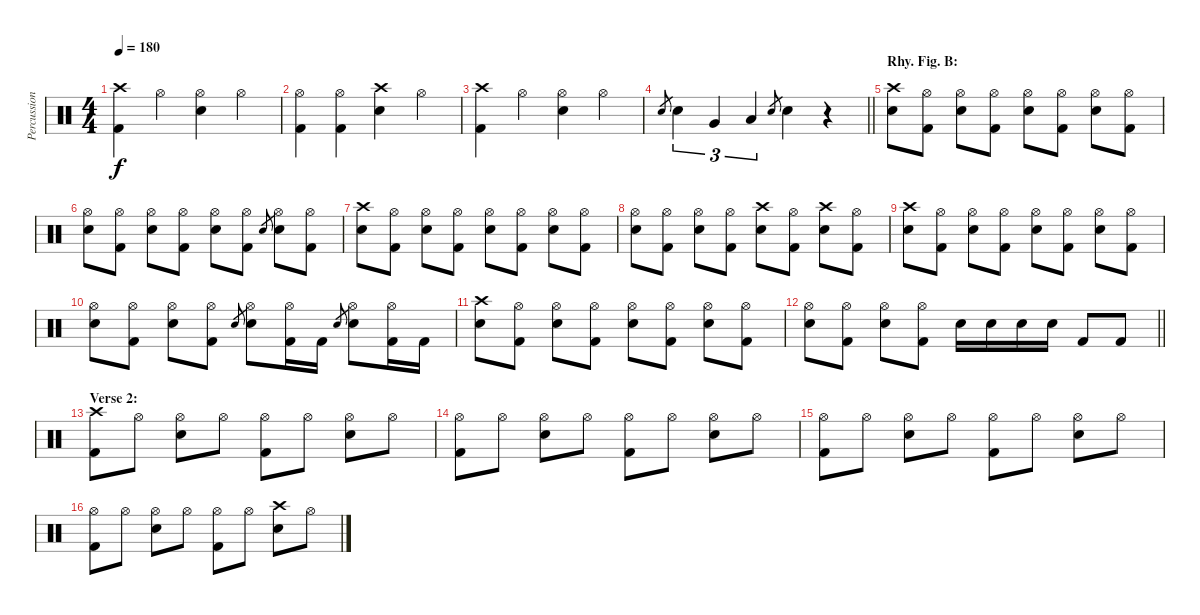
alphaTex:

\track ("Percussion" "Percussion") {instrument percussion}
\staff {score}
\articulation defaults
\ts (4 4)
\tempo 180
\clef neutral
\ks c
("Crash high (hit)" "Kick (hit) 2").4{dy f} "Hi-Hat (open)".4 ("Hi-Hat (open)" "Snare (hit) 2").4 "Hi-Hat (open)".4 |
("Hi-Hat (open)" "Kick (hit) 2").4 ("Hi-Hat (open)" "Kick (hit) 2").4 ("Crash high (hit)" "Snare (hit) 2").4 "Hi-Hat (open)".4 |
("Crash high (hit)" "Kick (hit) 2").4 "Hi-Hat (open)".4 ("Hi-Hat (open)" "Snare (hit) 2").4 "Hi-Hat (open)".4 |
\barLineRight lightlight "Snare (hit) 2".8{gr} "Snare (hit) 2".4{tu (3 2)} "Very Low Tom (hit)".4{tu (3 2)} "Low Floor Tom (hit)".4{tu (3 2)} "Snare (hit) 2".8{gr} "Snare (hit) 2".4
r.4 |
\section ("" "Rhy. Fig. B:")
("Crash high (hit)" "Snare (hit) 2").8 ("Hi-Hat (open)" "Kick (hit) 2").8 ("Hi-Hat (open)" "Snare (hit) 2").8 ("Hi-Hat (open)" "Kick (hit) 2").8 ("Hi-Hat (open)" "Snare (hit) 2").8 ("Hi-Hat (open)" "Kick (hit) 2").8 ("Hi-Hat (open)" "Snare (hit) 2").8 ("Hi-Hat (open)" "Kick (hit) 2").8 |
("Hi-Hat (open)" "Snare (hit) 2").8 ("Hi-Hat (open)" "Kick (hit) 2").8 ("Hi-Hat (open)" "Snare (hit) 2").8 ("Hi-Hat (open)" "Kick (hit) 2").8 ("Hi-Hat (open)" "Snare (hit) 2").8 ("Hi-Hat (open)" "Kick (hit) 2").8 "Snare (hit) 2".8{gr} ("Hi-Hat (open)" "Snare (hit) 2").8 ("Hi-Hat (open)" "Kick (hit) 2").8 |
("Crash high (hit)" "Snare (hit) 2").8 ("Hi-Hat (open)" "Kick (hit) 2").8 ("Hi-Hat (open)" "Snare (hit) 2").8 ("Hi-Hat (open)" "Kick (hit) 2").8 ("Hi-Hat (open)" "Snare (hit) 2").8 ("Hi-Hat (open)" "Kick (hit) 2").8 ("Hi-Hat (open)" "Snare (hit) 2").8 ("Hi-Hat (open)" "Kick (hit) 2").8 |
("Hi-Hat (open)" "Snare (hit) 2").8 ("Hi-Hat (open)" "Kick (hit) 2").8 ("Hi-Hat (open)" "Snare (hit) 2").8 ("Hi-Hat (open)" "Kick (hit) 2").8 ("Crash high (hit)" "Snare (hit) 2").8 ("Hi-Hat (open)" "Kick (hit) 2").8 ("Crash high (hit)" "Snare (hit) 2").8 ("Hi-Hat (open)" "Kick (hit) 2").8 |
("Crash high (hit)" "Snare (hit) 2").8 ("Hi-Hat (open)" "Kick (hit) 2").8 ("Hi-Hat (open)" "Snare (hit) 2").8 ("Hi-Hat (open)" "Kick (hit) 2").8 ("Hi-Hat (open)" "Snare (hit) 2").8 ("Hi-Hat (open)" "Kick (hit) 2").8 ("Hi-Hat (open)" "Snare (hit) 2").8 ("Hi-Hat (open)" "Kick (hit) 2").8 |
("Hi-Hat (open)" "Snare (hit) 2").8 ("Hi-Hat (open)" "Kick (hit) 2").8 ("Hi-Hat (open)" "Snare (hit) 2").8 ("Hi-Hat (open)" "Kick (hit) 2").8 "Snare (hit) 2".8{gr} ("Hi-Hat (open)" "Snare (hit) 2").8 ("Hi-Hat (open)" "Kick (hit) 2").16 "Kick (hit) 2".16 "Snare (hit) 2".8{gr} ("Hi-Hat (open)" "Snare (hit) 2").8 ("Hi-Hat (open)" "Kick (hit) 2").16 "Kick (hit) 2".16 |
("Crash high (hit)" "Snare (hit) 2").8 ("Hi-Hat (open)" "Kick (hit) 2").8 ("Hi-Hat (open)" "Snare (hit) 2").8 ("Hi-Hat (open)" "Kick (hit) 2").8 ("Hi-Hat (open)" "Snare (hit) 2").8 ("Hi-Hat (open)" "Kick (hit) 2").8 ("Hi-Hat (open)" "Snare (hit) 2").8 ("Hi-Hat (open)" "Kick (hit) 2").8 |
\barLineRight lightlight
("Hi-Hat (open)" "Snare (hit) 2").8 ("Hi-Hat (open)" "Kick (hit) 2").8 ("Hi-Hat (open)" "Snare (hit) 2").8 ("Hi-Hat (open)" "Kick (hit) 2").8 "Snare (hit) 2".16 "Snare (hit) 2".16 "Snare (hit) 2".16 "Snare (hit) 2".16 "Kick (hit) 2".8 "Kick (hit) 2".8 |
\section ("" "Verse 2:")
("Crash high (hit)" "Kick (hit) 2").8 "Hi-Hat (open)".8 ("Hi-Hat (open)" "Snare (hit) 2").8 "Hi-Hat (open)".8 ("Hi-Hat (open)" "Kick (hit) 2").8 "Hi-Hat (open)".8 ("Hi-Hat (open)" "Snare (hit) 2").8 "Hi-Hat (open)".8 |
("Hi-Hat (open)" "Kick (hit) 2").8 "Hi-Hat (open)".8 ("Hi-Hat (open)" "Snare (hit) 2").8 "Hi-Hat (open)".8 ("Hi-Hat (open)" "Kick (hit) 2").8 "Hi-Hat (open)".8 ("Hi-Hat (open)" "Snare (hit) 2").8 "Hi-Hat (open)".8 |
("Hi-Hat (open)" "Kick (hit) 2").8 "Hi-Hat (open)".8 ("Hi-Hat (open)" "Snare (hit) 2").8 "Hi-Hat (open)".8 ("Hi-Hat (open)" "Kick (hit) 2").8 "Hi-Hat (open)".8 ("Hi-Hat (open)" "Snare (hit) 2").8 "Hi-Hat (open)".8 |
("Hi-Hat (open)" "Kick (hit) 2").8 "Hi-Hat (open)".8 ("Hi-Hat (open)" "Snare (hit) 2").8 "Hi-Hat (open)".8 ("Hi-Hat (open)" "Kick (hit) 2").8 "Hi-Hat (open)".8 ("Crash high (hit)" "Snare (hit) 2").8 "Hi-Hat (open)".8
